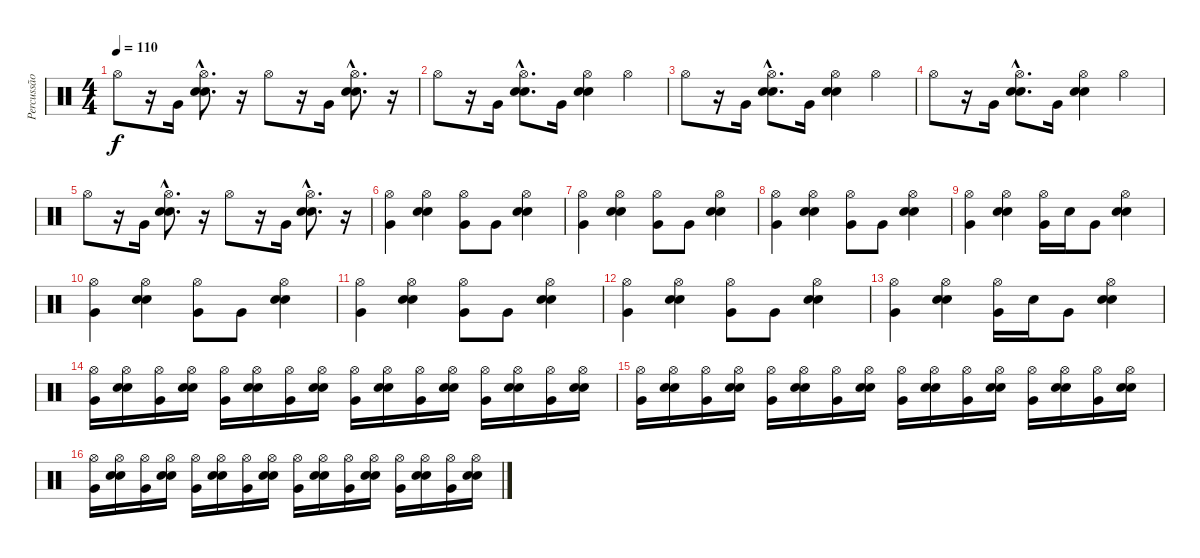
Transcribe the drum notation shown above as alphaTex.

\track ("Percussão" "Percussão") {instrument percussion}
\staff {score}
\articulation defaults
\ts (4 4)
\tempo 110
\clef neutral
\ks c "Hi-Hat (open)".8{dy f}
r.16 "Very Low Tom (hit)".16 ("Hi-Hat (open)"{hac} "Electric Snare (hit)"{hac} "Snare (hit) 2"{hac}).8{d} r.16 "Hi-Hat (open)".8 r.16 "Very Low Tom (hit)".16 ("Hi-Hat (open)"{hac} "Electric Snare (hit)"{hac} "Snare (hit) 2"{hac}).8{d} r.16 |
"Hi-Hat (open)".8 r.16 "Very Low Tom (hit)".16 ("Hi-Hat (open)"{hac} "Electric Snare (hit)"{hac} "Snare (hit) 2"{hac}).8{d} "Very Low Tom (hit)".16 ("Hi-Hat (open)" "Electric Snare (hit)" "Snare (hit) 2").4 "Hi-Hat (open)".4 |
"Hi-Hat (open)".8 r.16 "Very Low Tom (hit)".16 ("Hi-Hat (open)"{hac} "Electric Snare (hit)"{hac} "Snare (hit) 2"{hac}).8{d} "Very Low Tom (hit)".16 ("Hi-Hat (open)" "Electric Snare (hit)" "Snare (hit) 2").4 "Hi-Hat (open)".4 |
"Hi-Hat (open)".8 r.16 "Very Low Tom (hit)".16 ("Hi-Hat (open)"{hac} "Electric Snare (hit)"{hac} "Snare (hit) 2"{hac}).8{d} "Very Low Tom (hit)".16 ("Hi-Hat (open)" "Electric Snare (hit)" "Snare (hit) 2").4 "Hi-Hat (open)".4 |
"Hi-Hat (open)".8 r.16 "Very Low Tom (hit)".16 ("Hi-Hat (open)"{hac} "Electric Snare (hit)"{hac} "Snare (hit) 2"{hac}).8{d} r.16 "Hi-Hat (open)".8 r.16 "Very Low Tom (hit)".16 ("Hi-Hat (open)"{hac} "Electric Snare (hit)"{hac} "Snare (hit) 2"{hac}).8{d} r.16 |
("Hi-Hat (open)" "Very Low Tom (hit)").4 ("Hi-Hat (open)" "Electric Snare (hit)" "Snare (hit) 2").4 ("Hi-Hat (open)" "Very Low Tom (hit)").8 "Very Low Tom (hit)".8 ("Hi-Hat (open)" "Electric Snare (hit)" "Snare (hit) 2").4 |
("Hi-Hat (open)" "Very Low Tom (hit)").4 ("Hi-Hat (open)" "Electric Snare (hit)" "Snare (hit) 2").4 ("Hi-Hat (open)" "Very Low Tom (hit)").8 "Very Low Tom (hit)".8 ("Hi-Hat (open)" "Electric Snare (hit)" "Snare (hit) 2").4 |
("Hi-Hat (open)" "Very Low Tom (hit)").4 ("Hi-Hat (open)" "Electric Snare (hit)" "Snare (hit) 2").4 ("Hi-Hat (open)" "Very Low Tom (hit)").8 "Very Low Tom (hit)".8 ("Hi-Hat (open)" "Electric Snare (hit)" "Snare (hit) 2").4 |
("Hi-Hat (open)" "Very Low Tom (hit)").4 ("Hi-Hat (open)" "Electric Snare (hit)" "Snare (hit) 2").4 ("Hi-Hat (open)" "Very Low Tom (hit)").16 "Electric Snare (hit)".16 "Very Low Tom (hit)".8 ("Hi-Hat (open)" "Electric Snare (hit)" "Snare (hit) 2").4 |
("Hi-Hat (open)" "Very Low Tom (hit)").4 ("Hi-Hat (open)" "Electric Snare (hit)" "Snare (hit) 2").4 ("Hi-Hat (open)" "Very Low Tom (hit)").8 "Very Low Tom (hit)".8 ("Hi-Hat (open)" "Electric Snare (hit)" "Snare (hit) 2").4 |
("Hi-Hat (open)" "Very Low Tom (hit)").4 ("Hi-Hat (open)" "Electric Snare (hit)" "Snare (hit) 2").4 ("Hi-Hat (open)" "Very Low Tom (hit)").8 "Very Low Tom (hit)".8 ("Hi-Hat (open)" "Electric Snare (hit)" "Snare (hit) 2").4 |
("Hi-Hat (open)" "Very Low Tom (hit)").4 ("Hi-Hat (open)" "Electric Snare (hit)" "Snare (hit) 2").4 ("Hi-Hat (open)" "Very Low Tom (hit)").8 "Very Low Tom (hit)".8 ("Hi-Hat (open)" "Electric Snare (hit)" "Snare (hit) 2").4 |
("Hi-Hat (open)" "Very Low Tom (hit)").4 ("Hi-Hat (open)" "Electric Snare (hit)" "Snare (hit) 2").4 ("Hi-Hat (open)" "Very Low Tom (hit)").16 "Electric Snare (hit)".16 "Very Low Tom (hit)".8 ("Hi-Hat (open)" "Electric Snare (hit)" "Snare (hit) 2").4 |
("Hi-Hat (open)" "Very Low Tom (hit)").16 ("Hi-Hat (open)" "Electric Snare (hit)" "Snare (hit) 2").16 ("Hi-Hat (open)" "Very Low Tom (hit)").16 ("Hi-Hat (open)" "Electric Snare (hit)" "Snare (hit) 2").16 ("Hi-Hat (open)" "Very Low Tom (hit)").16 ("Hi-Hat (open)" "Electric Snare (hit)" "Snare (hit) 2").16 ("Hi-Hat (open)" "Very Low Tom (hit)").16 ("Hi-Hat (open)" "Electric Snare (hit)" "Snare (hit) 2").16 ("Hi-Hat (open)" "Very Low Tom (hit)").16 ("Hi-Hat (open)" "Electric Snare (hit)" "Snare (hit) 2").16 ("Hi-Hat (open)" "Very Low Tom (hit)").16 ("Hi-Hat (open)" "Electric Snare (hit)" "Snare (hit) 2").16 ("Hi-Hat (open)" "Very Low Tom (hit)").16 ("Hi-Hat (open)" "Electric Snare (hit)" "Snare (hit) 2").16 ("Hi-Hat (open)" "Very Low Tom (hit)").16 ("Hi-Hat (open)" "Electric Snare (hit)" "Snare (hit) 2").16 |
("Hi-Hat (open)" "Very Low Tom (hit)").16 ("Hi-Hat (open)" "Electric Snare (hit)" "Snare (hit) 2").16 ("Hi-Hat (open)" "Very Low Tom (hit)").16 ("Hi-Hat (open)" "Electric Snare (hit)" "Snare (hit) 2").16 ("Hi-Hat (open)" "Very Low Tom (hit)").16 ("Hi-Hat (open)" "Electric Snare (hit)" "Snare (hit) 2").16 ("Hi-Hat (open)" "Very Low Tom (hit)").16 ("Hi-Hat (open)" "Electric Snare (hit)" "Snare (hit) 2").16 ("Hi-Hat (open)" "Very Low Tom (hit)").16 ("Hi-Hat (open)" "Electric Snare (hit)" "Snare (hit) 2").16 ("Hi-Hat (open)" "Very Low Tom (hit)").16 ("Hi-Hat (open)" "Electric Snare (hit)" "Snare (hit) 2").16 ("Hi-Hat (open)" "Very Low Tom (hit)").16 ("Hi-Hat (open)" "Electric Snare (hit)" "Snare (hit) 2").16 ("Hi-Hat (open)" "Very Low Tom (hit)").16 ("Hi-Hat (open)" "Electric Snare (hit)" "Snare (hit) 2").16 |
("Hi-Hat (open)" "Very Low Tom (hit)").16 ("Hi-Hat (open)" "Electric Snare (hit)" "Snare (hit) 2").16 ("Hi-Hat (open)" "Very Low Tom (hit)").16 ("Hi-Hat (open)" "Electric Snare (hit)" "Snare (hit) 2").16 ("Hi-Hat (open)" "Very Low Tom (hit)").16 ("Hi-Hat (open)" "Electric Snare (hit)" "Snare (hit) 2").16 ("Hi-Hat (open)" "Very Low Tom (hit)").16 ("Hi-Hat (open)" "Electric Snare (hit)" "Snare (hit) 2").16 ("Hi-Hat (open)" "Very Low Tom (hit)").16 ("Hi-Hat (open)" "Electric Snare (hit)" "Snare (hit) 2").16 ("Hi-Hat (open)" "Very Low Tom (hit)").16 ("Hi-Hat (open)" "Electric Snare (hit)" "Snare (hit) 2").16 ("Hi-Hat (open)" "Very Low Tom (hit)").16 ("Hi-Hat (open)" "Electric Snare (hit)" "Snare (hit) 2").16 ("Hi-Hat (open)" "Very Low Tom (hit)").16 ("Hi-Hat (open)" "Electric Snare (hit)" "Snare (hit) 2").16
